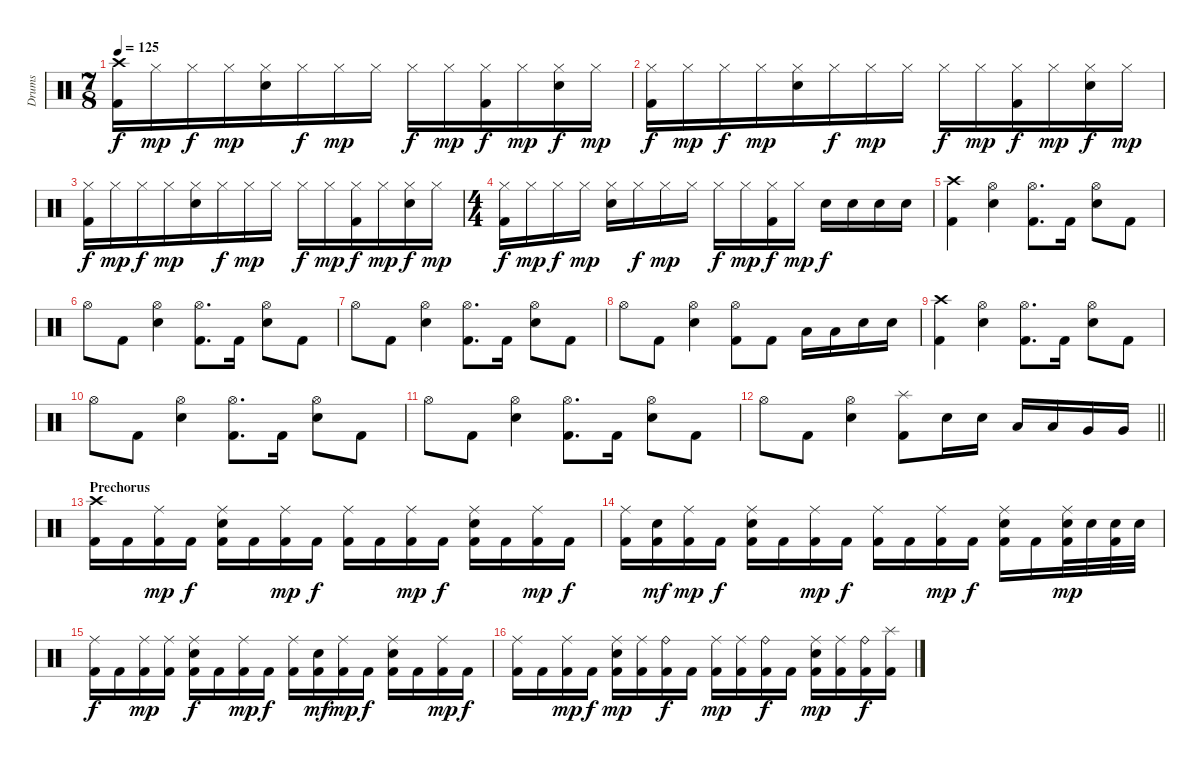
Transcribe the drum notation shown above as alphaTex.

\track ("Drums" "Drums") {instrument percussion}
\staff {score}
\articulation defaults
\ts (7 8)
\tempo 125
\clef neutral
\ks c
("Kick (hit) 2" "Crash high (hit)").16{dy f} "Hi-Hat (closed)".16{dy mp} "Hi-Hat (closed)".16{dy f} "Hi-Hat (closed)".16{dy mp} ("Hi-Hat (closed)" "Electric Snare (hit)").16 "Hi-Hat (closed)".16{dy f} "Hi-Hat (closed)".16{dy mp} "Hi-Hat (closed)".16 "Hi-Hat (closed)".16{dy f} "Hi-Hat (closed)".16{dy mp} ("Kick (hit) 2" "Hi-Hat (closed)").16{dy f} "Hi-Hat (closed)".16{dy mp} ("Hi-Hat (closed)" "Electric Snare (hit)").16{dy f} "Hi-Hat (closed)".16{dy mp} |
("Kick (hit) 2" "Hi-Hat (closed)").16{dy f} "Hi-Hat (closed)".16{dy mp} "Hi-Hat (closed)".16{dy f} "Hi-Hat (closed)".16{dy mp} ("Hi-Hat (closed)" "Electric Snare (hit)").16 "Hi-Hat (closed)".16{dy f} "Hi-Hat (closed)".16{dy mp} "Hi-Hat (closed)".16 "Hi-Hat (closed)".16{dy f} "Hi-Hat (closed)".16{dy mp} ("Kick (hit) 2" "Hi-Hat (closed)").16{dy f} "Hi-Hat (closed)".16{dy mp} ("Hi-Hat (closed)" "Electric Snare (hit)").16{dy f} "Hi-Hat (closed)".16{dy mp} |
("Kick (hit) 2" "Hi-Hat (closed)").16{dy f} "Hi-Hat (closed)".16{dy mp} "Hi-Hat (closed)".16{dy f} "Hi-Hat (closed)".16{dy mp} ("Hi-Hat (closed)" "Electric Snare (hit)").16 "Hi-Hat (closed)".16{dy f} "Hi-Hat (closed)".16{dy mp} "Hi-Hat (closed)".16 "Hi-Hat (closed)".16{dy f} "Hi-Hat (closed)".16{dy mp} ("Kick (hit) 2" "Hi-Hat (closed)").16{dy f} "Hi-Hat (closed)".16{dy mp} ("Hi-Hat (closed)" "Electric Snare (hit)").16{dy f} "Hi-Hat (closed)".16{dy mp} |
\ts (4 4)
("Kick (hit) 2" "Hi-Hat (closed)").16{dy f} "Hi-Hat (closed)".16{dy mp} "Hi-Hat (closed)".16{dy f} "Hi-Hat (closed)".16{dy mp} ("Hi-Hat (closed)" "Electric Snare (hit)").16 "Hi-Hat (closed)".16{dy f} "Hi-Hat (closed)".16{dy mp} "Hi-Hat (closed)".16 "Hi-Hat (closed)".16{dy f} "Hi-Hat (closed)".16{dy mp} ("Kick (hit) 2" "Hi-Hat (closed)").16{dy f} "Hi-Hat (closed)".16{dy mp} "Electric Snare (hit)".16{dy f} "Electric Snare (hit)".16 "Electric Snare (hit)".16 "Electric Snare (hit)".16 |
("Kick (hit) 2" "Crash high (hit)").4 ("Hi-Hat (open)" "Electric Snare (hit)").4 ("Kick (hit) 2" "Hi-Hat (open)").8{d} "Kick (hit) 2".16 ("Hi-Hat (open)" "Electric Snare (hit)").8 "Kick (hit) 2".8 |
"Hi-Hat (open)".8 "Kick (hit) 2".8 ("Hi-Hat (open)" "Electric Snare (hit)").4 ("Kick (hit) 2" "Hi-Hat (open)").8{d} "Kick (hit) 2".16 ("Hi-Hat (open)" "Electric Snare (hit)").8 "Kick (hit) 2".8 |
"Hi-Hat (open)".8 "Kick (hit) 2".8 ("Hi-Hat (open)" "Electric Snare (hit)").4 ("Kick (hit) 2" "Hi-Hat (open)").8{d} "Kick (hit) 2".16 ("Hi-Hat (open)" "Electric Snare (hit)").8 "Kick (hit) 2".8 |
"Hi-Hat (open)".8 "Kick (hit) 2".8 ("Hi-Hat (open)" "Electric Snare (hit)").4 ("Kick (hit) 2" "Hi-Hat (open)").8 "Kick (hit) 2".8 "Low Tom (hit)".16 "Low Tom (hit)".16 "Electric Snare (hit)".16 "Electric Snare (hit)".16 |
("Kick (hit) 2" "Crash high (hit)").4 ("Hi-Hat (open)" "Electric Snare (hit)").4 ("Kick (hit) 2" "Hi-Hat (open)").8{d} "Kick (hit) 2".16 ("Hi-Hat (open)" "Electric Snare (hit)").8 "Kick (hit) 2".8 |
"Hi-Hat (open)".8 "Kick (hit) 2".8 ("Hi-Hat (open)" "Electric Snare (hit)").4 ("Kick (hit) 2" "Hi-Hat (open)").8{d} "Kick (hit) 2".16 ("Hi-Hat (open)" "Electric Snare (hit)").8 "Kick (hit) 2".8 |
"Hi-Hat (open)".8 "Kick (hit) 2".8 ("Hi-Hat (open)" "Electric Snare (hit)").4 ("Kick (hit) 2" "Hi-Hat (open)").8{d} "Kick (hit) 2".16 ("Hi-Hat (open)" "Electric Snare (hit)").8 "Kick (hit) 2".8 |
\barLineRight lightlight "Hi-Hat (open)".8 "Kick (hit) 2".8
("Hi-Hat (open)" "Electric Snare (hit)").4 ("Kick (hit) 2" "Splash (hit)").8 "Electric Snare (hit)".16 "Electric Snare (hit)".16 "Low Tom (hit)".16 "Low Tom (hit)".16 "Very Low Tom (hit)".16 "Very Low Tom (hit)".16 |
\section ("" "Prechorus")
("Kick (hit) 2" "Crash high (hit)").16 "Kick (hit) 2".16 ("Kick (hit) 2" "Ride (middle)").16{dy mp} "Kick (hit) 2".16{dy f} ("Kick (hit) 2" "Ride (middle)" "Electric Snare (hit)").16 "Kick (hit) 2".16 ("Kick (hit) 2" "Ride (middle)").16{dy mp} "Kick (hit) 2".16{dy f} ("Kick (hit) 2" "Ride (middle)").16 "Kick (hit) 2".16 ("Kick (hit) 2" "Ride (middle)").16{dy mp} "Kick (hit) 2".16{dy f} ("Kick (hit) 2" "Ride (middle)" "Electric Snare (hit)").16 "Kick (hit) 2".16 ("Kick (hit) 2" "Ride (middle)").16{dy mp} "Kick (hit) 2".16{dy f} |
("Kick (hit) 2" "Ride (middle)").16 ("Kick (hit) 2" "Electric Snare (hit)").16{dy mf} ("Kick (hit) 2" "Ride (middle)").16{dy mp} "Kick (hit) 2".16{dy f} ("Kick (hit) 2" "Ride (middle)" "Electric Snare (hit)").16 "Kick (hit) 2".16 ("Kick (hit) 2" "Ride (middle)").16{dy mp} "Kick (hit) 2".16{dy f} ("Kick (hit) 2" "Ride (middle)").16 "Kick (hit) 2".16 ("Kick (hit) 2" "Ride (middle)").16{dy mp} "Kick (hit) 2".16{dy f} ("Kick (hit) 2" "Ride (middle)" "Electric Snare (hit)").16 "Kick (hit) 2".16 ("Kick (hit) 2" "Ride (middle)" "Electric Snare (hit)").32{dy mp} "Electric Snare (hit)".32 ("Kick (hit) 2" "Electric Snare (hit)").32 "Electric Snare (hit)".32 |
("Kick (hit) 2" "Ride (middle)").16{dy f} "Kick (hit) 2".16 ("Kick (hit) 2" "Ride (middle)").16{dy mp} ("Kick (hit) 2" "Ride (middle)").16 ("Kick (hit) 2" "Ride (middle)" "Electric Snare (hit)").16{dy f} "Kick (hit) 2".16 ("Kick (hit) 2" "Ride (middle)").16{dy mp} "Kick (hit) 2".16{dy f} ("Kick (hit) 2" "Ride (middle)").16 ("Kick (hit) 2" "Electric Snare (hit)").16{dy mf} ("Kick (hit) 2" "Ride (middle)").16{dy mp} "Kick (hit) 2".16{dy f} ("Kick (hit) 2" "Ride (middle)" "Electric Snare (hit)").16 "Kick (hit) 2".16 ("Kick (hit) 2" "Ride (middle)").16{dy mp} "Kick (hit) 2".16{dy f} |
("Kick (hit) 2" "Ride (middle)").16 "Kick (hit) 2".16 ("Kick (hit) 2" "Ride (middle)").16{dy mp} "Kick (hit) 2".16{dy f} ("Kick (hit) 2" "Ride (middle)" "Electric Snare (hit)").16{dy mp} ("Kick (hit) 2" "Ride (middle)").16 ("Kick (hit) 2" "Ride (bell)").16{dy f} "Kick (hit) 2".16 ("Kick (hit) 2" "Ride (middle)").16{dy mp} ("Kick (hit) 2" "Ride (middle)").16 ("Kick (hit) 2" "Ride (bell)").16{dy f} "Kick (hit) 2".16 ("Kick (hit) 2" "Ride (middle)" "Electric Snare (hit)").16{dy mp} ("Kick (hit) 2" "Ride (middle)").16 ("Kick (hit) 2" "Ride (bell)").16{dy f} ("Kick (hit) 2" "Splash (hit)").16
